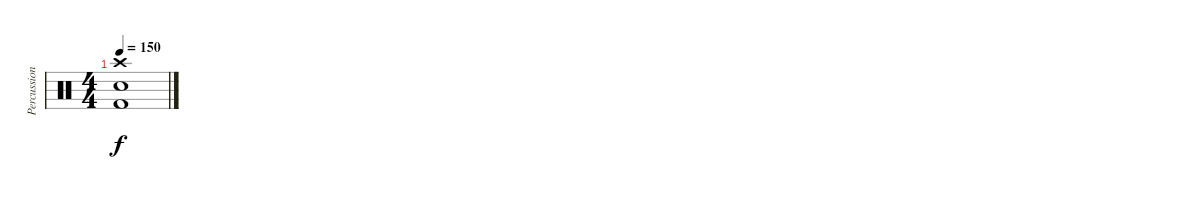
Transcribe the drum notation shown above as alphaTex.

\track ("Percussion" "Percussion") {instrument percussion}
\staff {score}
\articulation defaults
\ts (4 4)
\tempo 150
\clef neutral
\ks c
("Crash high (hit)" "Electric Snare (hit)" "Kick (hit) 2").1{dy f}
